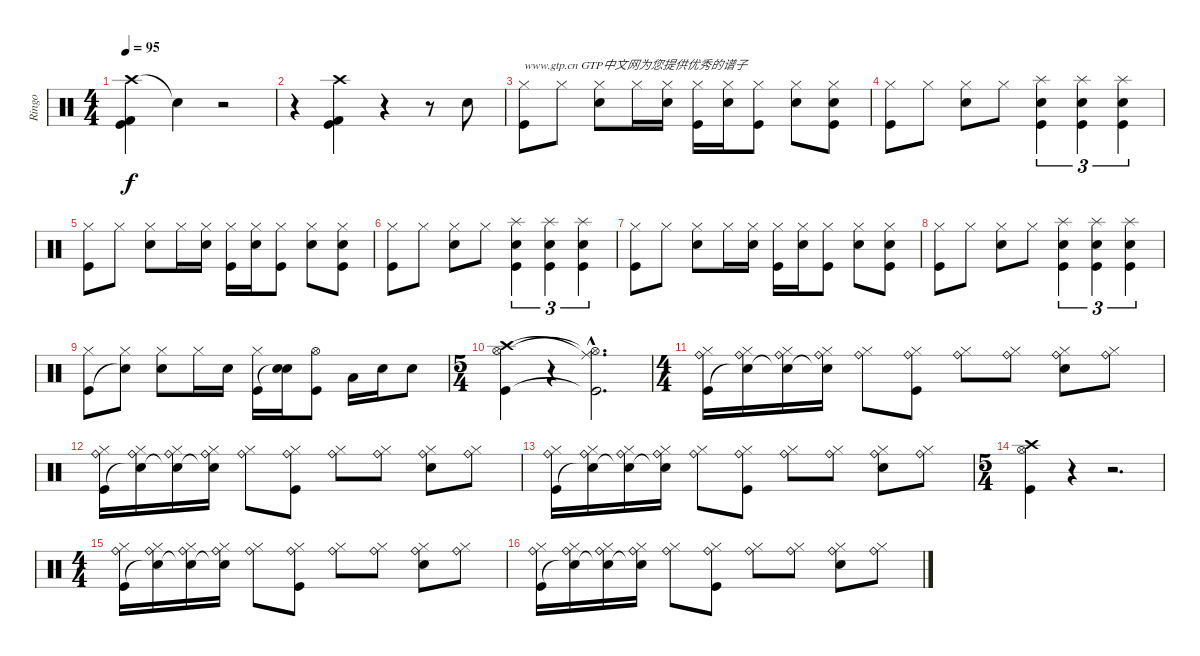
\track ("Ringo" "Ringo") {instrument percussion}
\staff {score}
\articulation defaults
\ts (4 4)
\tempo 95
\clef neutral
\ks c
("Crash high (hit)" "Kick (hit)" "Kick (hit) 2").4{dy f volume 16} "Snare (hit)"{t}.4 r.2 |
r.4 ("Crash high (hit)" "Kick (hit)" "Kick (hit) 2").4 r.4 r.8 "Snare (hit) 2".8 |
("Hi-Hat (closed)" "Kick (hit)").8{txt "www.gtp.cn GTP中文网为您提供优秀的谱子" volume 13} "Hi-Hat (closed)".8 ("Hi-Hat (closed)" "Snare (hit) 2").8 "Hi-Hat (closed)".16 ("Hi-Hat (closed)" "Snare (hit) 2").16 ("Hi-Hat (closed)" "Kick (hit)").16 ("Hi-Hat (closed)" "Snare (hit) 2").16 ("Hi-Hat (closed)" "Kick (hit)").8 ("Hi-Hat (closed)" "Snare (hit) 2").8 ("Hi-Hat (closed)" "Snare (hit) 2" "Kick (hit)").8 |
("Hi-Hat (closed)" "Kick (hit)").8 "Hi-Hat (closed)".8 ("Hi-Hat (closed)" "Snare (hit) 2").8 "Hi-Hat (closed)".8 ("Splash (hit)" "Snare (hit) 2" "Kick (hit)").4{tu (3 2)} ("Splash (hit)" "Snare (hit) 2" "Kick (hit)").4{tu (3 2)} ("Splash (hit)" "Snare (hit) 2" "Kick (hit)").4{tu (3 2)} |
("Hi-Hat (closed)" "Kick (hit)").8 "Hi-Hat (closed)".8 ("Hi-Hat (closed)" "Snare (hit) 2").8 "Hi-Hat (closed)".16 ("Hi-Hat (closed)" "Snare (hit) 2").16 ("Hi-Hat (closed)" "Kick (hit)").16 ("Hi-Hat (closed)" "Snare (hit) 2").16 ("Hi-Hat (closed)" "Kick (hit)").8 ("Hi-Hat (closed)" "Snare (hit) 2").8 ("Hi-Hat (closed)" "Snare (hit) 2" "Kick (hit)").8 |
("Hi-Hat (closed)" "Kick (hit)").8 "Hi-Hat (closed)".8 ("Hi-Hat (closed)" "Snare (hit) 2").8 "Hi-Hat (closed)".8 ("Splash (hit)" "Snare (hit) 2" "Kick (hit)").4{tu (3 2)} ("Splash (hit)" "Snare (hit) 2" "Kick (hit)").4{tu (3 2)} ("Splash (hit)" "Snare (hit) 2" "Kick (hit)").4{tu (3 2)} |
("Hi-Hat (closed)" "Kick (hit)").8 "Hi-Hat (closed)".8 ("Hi-Hat (closed)" "Snare (hit) 2").8 "Hi-Hat (closed)".16 ("Hi-Hat (closed)" "Snare (hit) 2").16 ("Hi-Hat (closed)" "Kick (hit)").16 ("Hi-Hat (closed)" "Snare (hit) 2").16 ("Hi-Hat (closed)" "Kick (hit)").8 ("Hi-Hat (closed)" "Snare (hit) 2").8 ("Hi-Hat (closed)" "Snare (hit) 2" "Kick (hit)").8 |
("Hi-Hat (closed)" "Kick (hit)").8 "Hi-Hat (closed)".8 ("Hi-Hat (closed)" "Snare (hit) 2").8 "Hi-Hat (closed)".8 ("Splash (hit)" "Snare (hit) 2" "Kick (hit)").4{tu (3 2)} ("Splash (hit)" "Snare (hit) 2" "Kick (hit)").4{tu (3 2)} ("Splash (hit)" "Snare (hit) 2" "Kick (hit)").4{tu (3 2)} |
("Hi-Hat (closed)" "Kick (hit)").8 ("Hi-Hat (closed)" "Snare (hit)"{t}).8 ("Hi-Hat (closed)" "Snare (hit) 2").8 "Hi-Hat (closed)".16 "Snare (hit) 2".16 ("Hi-Hat (closed)" "Kick (hit)").16 ("Snare (hit) 2" "Snare (hit)"{t}).16 ("Hi-Hat (open)" "Kick (hit)").8 "Low Floor Tom (hit)".16 "Snare (hit) 2".16 "Snare (hit) 2".8 |
\ts (5 4)
("Crash high (hit)" "Hi-Hat (open)" "Kick (hit)").4 r.4 ("Ride (middle)"{hac t} "Hi-Hat (open)"{hac t} "Kick (hit)"{hac t}).2{d} |
\ts (4 4)
("Ride (bell)" "Hi-Hat (closed)" "Kick (hit)").16 ("Ride (bell)" "Hi-Hat (closed)" "Snare (hit)"{t}).16 ("Ride (bell)" "Hi-Hat (closed)" "Snare (hit)"{t}).16 ("Ride (bell)" "Hi-Hat (closed)" "Snare (hit)"{t}).16 ("Ride (bell)" "Hi-Hat (closed)").8 ("Ride (bell)" "Hi-Hat (closed)" "Kick (hit)").8 ("Ride (bell)" "Hi-Hat (closed)").8 ("Ride (bell)" "Hi-Hat (closed)").8 ("Ride (bell)" "Hi-Hat (closed)" "Snare (hit) 2").8 ("Ride (bell)" "Hi-Hat (closed)").8 |
("Ride (bell)" "Hi-Hat (closed)" "Kick (hit)").16 ("Ride (bell)" "Hi-Hat (closed)" "Snare (hit)"{t}).16 ("Ride (bell)" "Hi-Hat (closed)" "Snare (hit)"{t}).16 ("Ride (bell)" "Hi-Hat (closed)" "Snare (hit)"{t}).16 ("Ride (bell)" "Hi-Hat (closed)").8 ("Ride (bell)" "Hi-Hat (closed)" "Kick (hit)").8 ("Ride (bell)" "Hi-Hat (closed)").8 ("Ride (bell)" "Hi-Hat (closed)").8 ("Ride (bell)" "Hi-Hat (closed)" "Snare (hit) 2").8 ("Ride (bell)" "Hi-Hat (closed)").8 |
("Ride (bell)" "Hi-Hat (closed)" "Kick (hit)").16 ("Ride (bell)" "Hi-Hat (closed)" "Snare (hit)"{t}).16 ("Ride (bell)" "Hi-Hat (closed)" "Snare (hit)"{t}).16 ("Ride (bell)" "Hi-Hat (closed)" "Snare (hit)"{t}).16 ("Ride (bell)" "Hi-Hat (closed)").8 ("Ride (bell)" "Hi-Hat (closed)" "Kick (hit)").8 ("Ride (bell)" "Hi-Hat (closed)").8 ("Ride (bell)" "Hi-Hat (closed)").8 ("Ride (bell)" "Hi-Hat (closed)" "Snare (hit) 2").8 ("Ride (bell)" "Hi-Hat (closed)").8 |
\ts (5 4)
("Crash high (hit)" "Hi-Hat (open)" "Kick (hit)").4 r.4 r.2{d} |
\ts (4 4)
("Ride (bell)" "Hi-Hat (closed)" "Kick (hit)").16 ("Ride (bell)" "Hi-Hat (closed)" "Snare (hit)"{t}).16 ("Ride (bell)" "Hi-Hat (closed)" "Snare (hit)"{t}).16 ("Ride (bell)" "Hi-Hat (closed)" "Snare (hit)"{t}).16 ("Ride (bell)" "Hi-Hat (closed)").8 ("Ride (bell)" "Hi-Hat (closed)" "Kick (hit)").8 ("Ride (bell)" "Hi-Hat (closed)").8 ("Ride (bell)" "Hi-Hat (closed)").8 ("Ride (bell)" "Hi-Hat (closed)" "Snare (hit) 2").8 ("Ride (bell)" "Hi-Hat (closed)").8 |
("Ride (bell)" "Hi-Hat (closed)" "Kick (hit)").16 ("Ride (bell)" "Hi-Hat (closed)" "Snare (hit)"{t}).16 ("Ride (bell)" "Hi-Hat (closed)" "Snare (hit)"{t}).16 ("Ride (bell)" "Hi-Hat (closed)" "Snare (hit)"{t}).16 ("Ride (bell)" "Hi-Hat (closed)").8 ("Ride (bell)" "Hi-Hat (closed)" "Kick (hit)").8 ("Ride (bell)" "Hi-Hat (closed)").8 ("Ride (bell)" "Hi-Hat (closed)").8 ("Ride (bell)" "Hi-Hat (closed)" "Snare (hit) 2").8 ("Ride (bell)" "Hi-Hat (closed)").8
